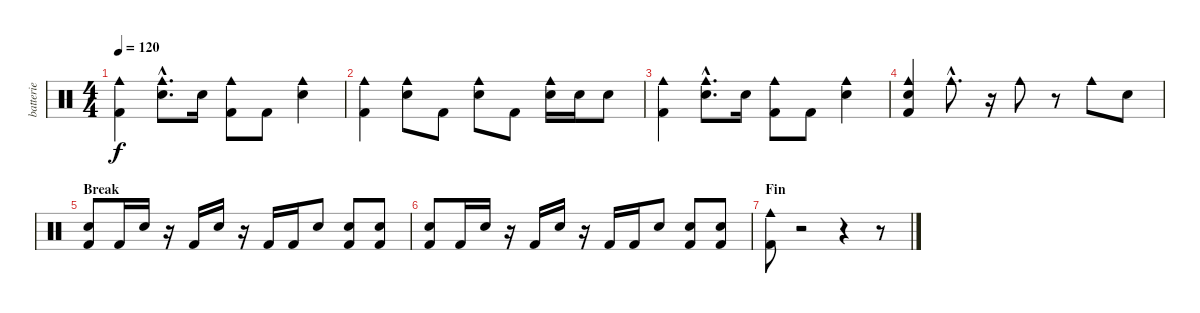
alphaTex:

\track ("batterie" "batterie") {instrument percussion}
\staff {score}
\articulation defaults
\ts (4 4)
\tempo 120
\clef neutral
\ks c
("Kick (hit) 2" "Cowbell medium (hit)").4{dy f} ("Electric Snare (hit)"{hac} "Cowbell medium (hit)"{hac}).8{d} "Electric Snare (hit)".16 ("Kick (hit) 2" "Cowbell medium (hit)").8 "Kick (hit) 2".8 ("Electric Snare (hit)" "Cowbell medium (hit)").4 |
("Kick (hit) 2" "Cowbell medium (hit)").4 ("Electric Snare (hit)" "Cowbell medium (hit)").8 "Kick (hit) 2".8 ("Electric Snare (hit)" "Cowbell medium (hit)").8 "Kick (hit) 2".8 ("Electric Snare (hit)" "Cowbell medium (hit)").16 "Electric Snare (hit)".16 "Electric Snare (hit)".8 |
("Kick (hit) 2" "Cowbell medium (hit)").4 ("Electric Snare (hit)"{hac} "Cowbell medium (hit)"{hac}).8{d} "Electric Snare (hit)".16 ("Kick (hit) 2" "Cowbell medium (hit)").8 "Kick (hit) 2".8 ("Electric Snare (hit)" "Cowbell medium (hit)").4 |
("Kick (hit) 2" "Electric Snare (hit)" "Cowbell medium (hit)").4 "Cowbell medium (hit)"{hac}.8{d} r.16 "Cowbell medium (hit)".8 r.8 "Cowbell medium (hit)".8 "Electric Snare (hit)".8 |
\section ("" "Break")
("Kick (hit) 2" "Electric Snare (hit)").8 "Kick (hit) 2".16 "Electric Snare (hit)".16 r.16 "Kick (hit) 2".16 "Electric Snare (hit)".16 r.16 "Kick (hit) 2".16 "Kick (hit) 2".16 "Electric Snare (hit)".8 ("Kick (hit) 2" "Electric Snare (hit)").8 ("Kick (hit) 2" "Electric Snare (hit)").8 |
("Kick (hit) 2" "Electric Snare (hit)").8 "Kick (hit) 2".16 "Electric Snare (hit)".16 r.16 "Kick (hit) 2".16 "Electric Snare (hit)".16 r.16 "Kick (hit) 2".16 "Kick (hit) 2".16 "Electric Snare (hit)".8 ("Kick (hit) 2" "Electric Snare (hit)").8 ("Kick (hit) 2" "Electric Snare (hit)").8 |
\section ("" "Fin")
("Kick (hit) 2" "Cowbell medium (hit)").8 r.2 r.4 r.8
